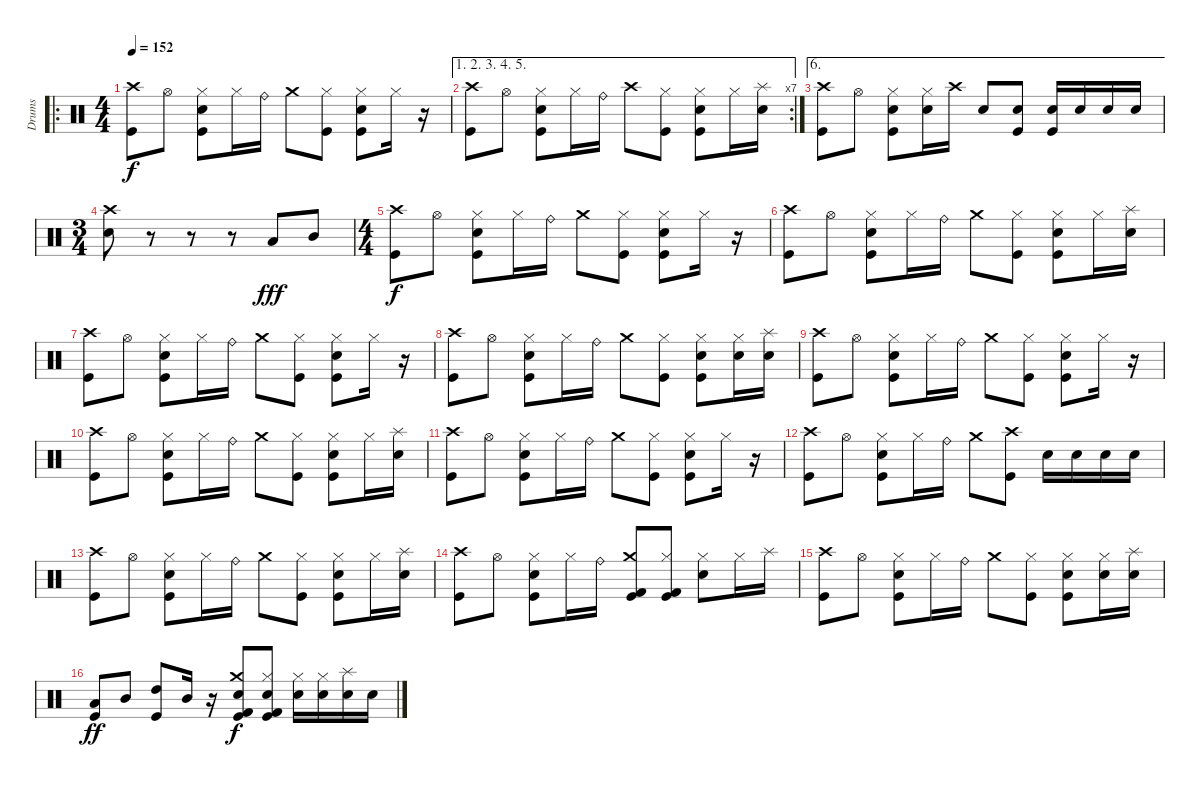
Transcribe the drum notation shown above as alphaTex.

\track ("Drums" "Drums") {instrument percussion}
\staff {score}
\articulation defaults
\ro
\ts (4 4)
\tempo 152
\clef neutral
\ks c
("Crash high (hit)" "Kick (hit)").8{dy f} "Hi-Hat (open)".8 ("Hi-Hat (closed)" "Electric Snare (hit)" "Kick (hit)").8 "Hi-Hat (closed)".16 "Ride (bell)".16 "Crash medium (hit)".8 ("Hi-Hat (closed)" "Kick (hit)").8 ("Hi-Hat (closed)" "Electric Snare (hit)" "Kick (hit)").8 "Hi-Hat (closed)".16 r.16 |
\ae (1 2 3 4 5)
\rc 7
("Crash high (hit)" "Kick (hit)").8 "Hi-Hat (open)".8 ("Hi-Hat (closed)" "Electric Snare (hit)" "Kick (hit)").8 "Hi-Hat (closed)".16 "Ride (bell)".16 "Crash high (hit)".8 ("Hi-Hat (closed)" "Kick (hit)").8 ("Hi-Hat (closed)" "Electric Snare (hit)" "Kick (hit)").8 "Hi-Hat (closed)".16 ("Splash (hit)" "Electric Snare (hit)").16 |
\ae 6
("Crash high (hit)" "Kick (hit)").8 "Hi-Hat (open)".8 ("Hi-Hat (closed)" "Electric Snare (hit)" "Kick (hit)").8 ("Hi-Hat (closed)" "Electric Snare (hit)").16 "Crash high (hit)".16 "Electric Snare (hit)".8 ("Electric Snare (hit)" "Kick (hit)").8 ("Electric Snare (hit)" "Kick (hit)").16 "Electric Snare (hit)".16 "Electric Snare (hit)".16 "Electric Snare (hit)".16 |
\ts (3 4)
("Electric Snare (hit)" "Crash high (hit)").8 r.8 r.8 r.8 "Low Tom (hit)".8{dy fff} "Mid Tom (hit)".8 |
\ts (4 4)
("Crash high (hit)" "Kick (hit)").8{dy f} "Hi-Hat (open)".8 ("Hi-Hat (closed)" "Electric Snare (hit)" "Kick (hit)").8 "Hi-Hat (closed)".16 "Ride (bell)".16 "Crash medium (hit)".8 ("Hi-Hat (closed)" "Kick (hit)").8 ("Hi-Hat (closed)" "Electric Snare (hit)" "Kick (hit)").8 "Hi-Hat (closed)".16 r.16 |
("Crash high (hit)" "Kick (hit)").8 "Hi-Hat (open)".8 ("Hi-Hat (closed)" "Electric Snare (hit)" "Kick (hit)").8 "Hi-Hat (closed)".16 "Ride (bell)".16 "Crash medium (hit)".8 ("Hi-Hat (closed)" "Kick (hit)").8 ("Hi-Hat (closed)" "Electric Snare (hit)" "Kick (hit)").8 "Hi-Hat (closed)".16 ("Splash (hit)" "Electric Snare (hit)").16 |
("Crash high (hit)" "Kick (hit)").8 "Hi-Hat (open)".8 ("Hi-Hat (closed)" "Electric Snare (hit)" "Kick (hit)").8 "Hi-Hat (closed)".16 "Ride (bell)".16 "Crash medium (hit)".8 ("Hi-Hat (closed)" "Kick (hit)").8 ("Hi-Hat (closed)" "Electric Snare (hit)" "Kick (hit)").8 "Hi-Hat (closed)".16 r.16 |
("Crash high (hit)" "Kick (hit)").8 "Hi-Hat (open)".8 ("Hi-Hat (closed)" "Electric Snare (hit)" "Kick (hit)").8 "Hi-Hat (closed)".16 "Ride (bell)".16 "Crash medium (hit)".8 ("Hi-Hat (closed)" "Kick (hit)").8 ("Hi-Hat (closed)" "Electric Snare (hit)" "Kick (hit)").8 ("Hi-Hat (closed)" "Electric Snare (hit)").16 ("Splash (hit)" "Electric Snare (hit)").16 |
("Crash high (hit)" "Kick (hit)").8 "Hi-Hat (open)".8 ("Hi-Hat (closed)" "Electric Snare (hit)" "Kick (hit)").8 "Hi-Hat (closed)".16 "Ride (bell)".16 "Crash medium (hit)".8 ("Hi-Hat (closed)" "Kick (hit)").8 ("Hi-Hat (closed)" "Electric Snare (hit)" "Kick (hit)").8 "Hi-Hat (closed)".16 r.16 |
("Crash high (hit)" "Kick (hit)").8 "Hi-Hat (open)".8 ("Hi-Hat (closed)" "Electric Snare (hit)" "Kick (hit)").8 "Hi-Hat (closed)".16 "Ride (bell)".16 "Crash medium (hit)".8 ("Hi-Hat (closed)" "Kick (hit)").8 ("Hi-Hat (closed)" "Electric Snare (hit)" "Kick (hit)").8 "Hi-Hat (closed)".16 ("Splash (hit)" "Electric Snare (hit)").16 |
("Crash high (hit)" "Kick (hit)").8 "Hi-Hat (open)".8 ("Hi-Hat (closed)" "Electric Snare (hit)" "Kick (hit)").8 "Hi-Hat (closed)".16 "Ride (bell)".16 "Crash medium (hit)".8 ("Hi-Hat (closed)" "Kick (hit)").8 ("Hi-Hat (closed)" "Electric Snare (hit)" "Kick (hit)").8 "Hi-Hat (closed)".16 r.16 |
("Crash high (hit)" "Kick (hit)").8 "Hi-Hat (open)".8 ("Hi-Hat (closed)" "Electric Snare (hit)" "Kick (hit)").8 "Hi-Hat (closed)".16 "Ride (bell)".16 "Crash medium (hit)".8 ("Crash high (hit)" "Kick (hit)").8 "Electric Snare (hit)".16 "Electric Snare (hit)".16 "Electric Snare (hit)".16 "Electric Snare (hit)".16 |
("Crash high (hit)" "Kick (hit)").8 "Hi-Hat (open)".8 ("Hi-Hat (closed)" "Electric Snare (hit)" "Kick (hit)").8 "Hi-Hat (closed)".16 "Ride (bell)".16 "Crash medium (hit)".8 ("Hi-Hat (closed)" "Kick (hit)").8 ("Hi-Hat (closed)" "Electric Snare (hit)" "Kick (hit)").8 "Hi-Hat (closed)".16 ("Splash (hit)" "Electric Snare (hit)").16 |
("Crash high (hit)" "Kick (hit)").8 "Hi-Hat (open)".8 ("Hi-Hat (closed)" "Electric Snare (hit)" "Kick (hit)").8 "Hi-Hat (closed)".16 "Ride (bell)".16 ("Crash medium (hit)" "Kick (hit) 2" "Kick (hit)").8 ("Hi-Hat (closed)" "Kick (hit) 2" "Kick (hit)").8 ("Hi-Hat (closed)" "Electric Snare (hit)").8 "Hi-Hat (closed)".16 "Splash (hit)".16 |
("Crash high (hit)" "Kick (hit)").8 "Hi-Hat (open)".8 ("Hi-Hat (closed)" "Electric Snare (hit)" "Kick (hit)").8 "Hi-Hat (closed)".16 "Ride (bell)".16 "Crash medium (hit)".8 ("Hi-Hat (closed)" "Kick (hit)").8 ("Hi-Hat (closed)" "Electric Snare (hit)" "Kick (hit)").8 ("Hi-Hat (closed)" "Electric Snare (hit)").16 ("Splash (hit)" "Electric Snare (hit)").16 |
("Low Tom (hit)" "Kick (hit)").8{dy ff} "Mid Tom (hit)".8 ("High Tom (hit)" "Kick (hit)").8 "Mid Tom (hit)".16 r.16 ("Crash medium (hit)" "Electric Snare (hit)" "Kick (hit) 2" "Kick (hit)").8{dy f} ("Hi-Hat (closed)" "Electric Snare (hit)" "Kick (hit) 2" "Kick (hit)").8 ("Hi-Hat (closed)" "Electric Snare (hit)").16 ("Hi-Hat (closed)" "Electric Snare (hit)").16 ("Splash (hit)" "Electric Snare (hit)").16 "Electric Snare (hit)".16
